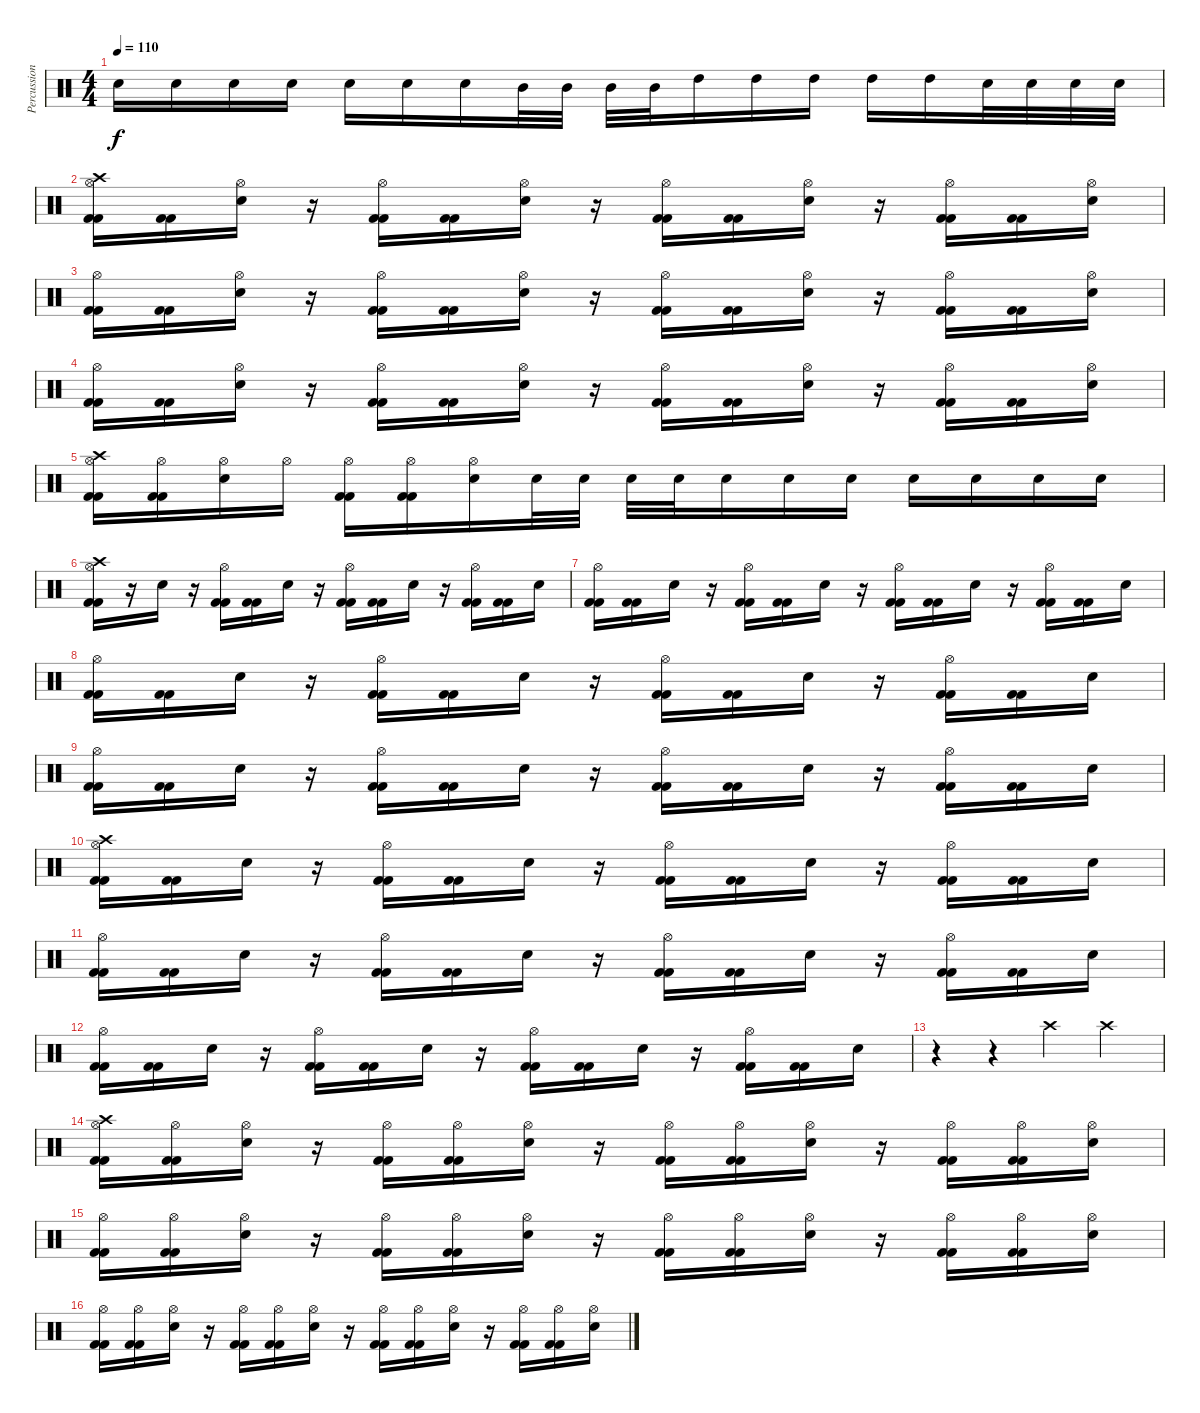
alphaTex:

\track ("Percussions" "Percussion") {instrument percussion}
\staff {score}
\articulation defaults
\ts (4 4)
\tempo 110
\clef neutral
\ks c "Snare (hit) 2".16{dy f volume 16} "Snare (hit) 2".16 "Snare (hit) 2".16 "Snare (hit) 2".16 "Snare (hit) 2".16 "Snare (hit) 2".16 "Snare (hit) 2".16 "Mid Tom (hit)".32 "Mid Tom (hit)".32 "Mid Tom (hit)".32 "Mid Tom (hit)".32 "High Tom (hit)".16 "High Tom (hit)".16 "High Tom (hit)".16 "High Tom (hit)".16 "High Tom (hit)".16 "Snare (hit) 2".32 "Snare (hit) 2".32 "Snare (hit) 2".32 "Snare (hit) 2".32
|
("Crash high (hit)" "Hi-Hat (open)" "Kick (hit) 2" "Kick (hit) 2").16 ("Kick (hit) 2" "Kick (hit) 2").16 ("Hi-Hat (open)" "Snare (hit) 2").16 r.16 ("Hi-Hat (open)" "Kick (hit) 2" "Kick (hit) 2").16 ("Kick (hit) 2" "Kick (hit) 2").16 ("Hi-Hat (open)" "Snare (hit) 2").16 r.16 ("Hi-Hat (open)" "Kick (hit) 2" "Kick (hit) 2").16 ("Kick (hit) 2" "Kick (hit) 2").16 ("Hi-Hat (open)" "Snare (hit) 2").16 r.16 ("Hi-Hat (open)" "Kick (hit) 2" "Kick (hit) 2").16 ("Kick (hit) 2" "Kick (hit) 2").16 ("Hi-Hat (open)" "Snare (hit) 2").16 |
("Hi-Hat (open)" "Kick (hit) 2" "Kick (hit) 2").16 ("Kick (hit) 2" "Kick (hit) 2").16 ("Hi-Hat (open)" "Snare (hit) 2").16 r.16 ("Hi-Hat (open)" "Kick (hit) 2" "Kick (hit) 2").16 ("Kick (hit) 2" "Kick (hit) 2").16 ("Hi-Hat (open)" "Snare (hit) 2").16 r.16 ("Hi-Hat (open)" "Kick (hit) 2" "Kick (hit) 2").16 ("Kick (hit) 2" "Kick (hit) 2").16 ("Hi-Hat (open)" "Snare (hit) 2").16 r.16 ("Hi-Hat (open)" "Kick (hit) 2" "Kick (hit) 2").16 ("Kick (hit) 2" "Kick (hit) 2").16 ("Hi-Hat (open)" "Snare (hit) 2").16 |
("Hi-Hat (open)" "Kick (hit) 2" "Kick (hit) 2").16 ("Kick (hit) 2" "Kick (hit) 2").16 ("Hi-Hat (open)" "Snare (hit) 2").16 r.16 ("Hi-Hat (open)" "Kick (hit) 2" "Kick (hit) 2").16 ("Kick (hit) 2" "Kick (hit) 2").16 ("Hi-Hat (open)" "Snare (hit) 2").16 r.16 ("Hi-Hat (open)" "Kick (hit) 2" "Kick (hit) 2").16 ("Kick (hit) 2" "Kick (hit) 2").16 ("Hi-Hat (open)" "Snare (hit) 2").16 r.16 ("Hi-Hat (open)" "Kick (hit) 2" "Kick (hit) 2").16 ("Kick (hit) 2" "Kick (hit) 2").16 ("Hi-Hat (open)" "Snare (hit) 2").16 |
("Crash high (hit)" "Hi-Hat (open)" "Kick (hit) 2" "Kick (hit) 2").16 ("Hi-Hat (open)" "Kick (hit) 2" "Kick (hit) 2").16 ("Hi-Hat (open)" "Snare (hit) 2").16 "Hi-Hat (open)".16 ("Hi-Hat (open)" "Kick (hit) 2" "Kick (hit) 2").16 ("Hi-Hat (open)" "Kick (hit) 2" "Kick (hit) 2").16 ("Hi-Hat (open)" "Snare (hit) 2").16 "Snare (hit) 2".32 "Snare (hit) 2".32 "Snare (hit) 2".32 "Snare (hit) 2".32 "Snare (hit) 2".16 "Snare (hit) 2".16 "Snare (hit) 2".16 "Snare (hit) 2".16 "Snare (hit) 2".16 "Snare (hit) 2".16 "Snare (hit) 2".16 |
("Crash high (hit)" "Hi-Hat (open)" "Kick (hit) 2" "Kick (hit) 2").16 r.16 "Snare (hit) 2".16 r.16 ("Hi-Hat (open)" "Kick (hit) 2" "Kick (hit) 2").16 ("Kick (hit) 2" "Kick (hit) 2").16 "Snare (hit) 2".16 r.16 ("Hi-Hat (open)" "Kick (hit) 2" "Kick (hit) 2").16 ("Kick (hit) 2" "Kick (hit) 2").16 "Snare (hit) 2".16 r.16 ("Hi-Hat (open)" "Kick (hit) 2" "Kick (hit) 2").16 ("Kick (hit) 2" "Kick (hit) 2").16 "Snare (hit) 2".16 |
("Hi-Hat (open)" "Kick (hit) 2" "Kick (hit) 2").16 ("Kick (hit) 2" "Kick (hit) 2").16 "Snare (hit) 2".16 r.16 ("Hi-Hat (open)" "Kick (hit) 2" "Kick (hit) 2").16 ("Kick (hit) 2" "Kick (hit) 2").16 "Snare (hit) 2".16 r.16 ("Hi-Hat (open)" "Kick (hit) 2" "Kick (hit) 2").16 ("Kick (hit) 2" "Kick (hit) 2").16 "Snare (hit) 2".16 r.16 ("Hi-Hat (open)" "Kick (hit) 2" "Kick (hit) 2").16 ("Kick (hit) 2" "Kick (hit) 2").16 "Snare (hit) 2".16 |
("Hi-Hat (open)" "Kick (hit) 2" "Kick (hit) 2").16 ("Kick (hit) 2" "Kick (hit) 2").16 "Snare (hit) 2".16 r.16 ("Hi-Hat (open)" "Kick (hit) 2" "Kick (hit) 2").16 ("Kick (hit) 2" "Kick (hit) 2").16 "Snare (hit) 2".16 r.16 ("Hi-Hat (open)" "Kick (hit) 2" "Kick (hit) 2").16 ("Kick (hit) 2" "Kick (hit) 2").16 "Snare (hit) 2".16 r.16 ("Hi-Hat (open)" "Kick (hit) 2" "Kick (hit) 2").16 ("Kick (hit) 2" "Kick (hit) 2").16 "Snare (hit) 2".16 |
("Hi-Hat (open)" "Kick (hit) 2" "Kick (hit) 2").16 ("Kick (hit) 2" "Kick (hit) 2").16 "Snare (hit) 2".16 r.16 ("Hi-Hat (open)" "Kick (hit) 2" "Kick (hit) 2").16 ("Kick (hit) 2" "Kick (hit) 2").16 "Snare (hit) 2".16 r.16 ("Hi-Hat (open)" "Kick (hit) 2" "Kick (hit) 2").16 ("Kick (hit) 2" "Kick (hit) 2").16 "Snare (hit) 2".16 r.16 ("Hi-Hat (open)" "Kick (hit) 2" "Kick (hit) 2").16 ("Kick (hit) 2" "Kick (hit) 2").16 "Snare (hit) 2".16 |
("Crash high (hit)" "Hi-Hat (open)" "Kick (hit) 2" "Kick (hit) 2").16 ("Kick (hit) 2" "Kick (hit) 2").16 "Snare (hit) 2".16 r.16 ("Hi-Hat (open)" "Kick (hit) 2" "Kick (hit) 2").16 ("Kick (hit) 2" "Kick (hit) 2").16 "Snare (hit) 2".16 r.16 ("Hi-Hat (open)" "Kick (hit) 2" "Kick (hit) 2").16 ("Kick (hit) 2" "Kick (hit) 2").16 "Snare (hit) 2".16 r.16 ("Hi-Hat (open)" "Kick (hit) 2" "Kick (hit) 2").16 ("Kick (hit) 2" "Kick (hit) 2").16 "Snare (hit) 2".16 |
("Hi-Hat (open)" "Kick (hit) 2" "Kick (hit) 2").16 ("Kick (hit) 2" "Kick (hit) 2").16 "Snare (hit) 2".16 r.16 ("Hi-Hat (open)" "Kick (hit) 2" "Kick (hit) 2").16 ("Kick (hit) 2" "Kick (hit) 2").16 "Snare (hit) 2".16 r.16 ("Hi-Hat (open)" "Kick (hit) 2" "Kick (hit) 2").16 ("Kick (hit) 2" "Kick (hit) 2").16 "Snare (hit) 2".16 r.16 ("Hi-Hat (open)" "Kick (hit) 2" "Kick (hit) 2").16 ("Kick (hit) 2" "Kick (hit) 2").16 "Snare (hit) 2".16 |
("Hi-Hat (open)" "Kick (hit) 2" "Kick (hit) 2").16 ("Kick (hit) 2" "Kick (hit) 2").16 "Snare (hit) 2".16 r.16 ("Hi-Hat (open)" "Kick (hit) 2" "Kick (hit) 2").16 ("Kick (hit) 2" "Kick (hit) 2").16 "Snare (hit) 2".16 r.16 ("Hi-Hat (open)" "Kick (hit) 2" "Kick (hit) 2").16 ("Kick (hit) 2" "Kick (hit) 2").16 "Snare (hit) 2".16 r.16 ("Hi-Hat (open)" "Kick (hit) 2" "Kick (hit) 2").16 ("Kick (hit) 2" "Kick (hit) 2").16 "Snare (hit) 2".16 |
r.4 r.4 "Crash high (hit)".4 "Crash high (hit)".4 |
("Crash high (hit)" "Hi-Hat (open)" "Kick (hit) 2" "Kick (hit) 2").16 ("Hi-Hat (open)" "Kick (hit) 2" "Kick (hit) 2").16 ("Hi-Hat (open)" "Snare (hit) 2").16 r.16 ("Hi-Hat (open)" "Kick (hit) 2" "Kick (hit) 2").16 ("Hi-Hat (open)" "Kick (hit) 2" "Kick (hit) 2").16 ("Hi-Hat (open)" "Snare (hit) 2").16 r.16 ("Hi-Hat (open)" "Kick (hit) 2" "Kick (hit) 2").16 ("Hi-Hat (open)" "Kick (hit) 2" "Kick (hit) 2").16 ("Hi-Hat (open)" "Snare (hit) 2").16 r.16 ("Hi-Hat (open)" "Kick (hit) 2" "Kick (hit) 2").16 ("Hi-Hat (open)" "Kick (hit) 2" "Kick (hit) 2").16 ("Hi-Hat (open)" "Snare (hit) 2").16 |
("Hi-Hat (open)" "Kick (hit) 2" "Kick (hit) 2").16 ("Hi-Hat (open)" "Kick (hit) 2" "Kick (hit) 2").16 ("Hi-Hat (open)" "Snare (hit) 2").16 r.16 ("Hi-Hat (open)" "Kick (hit) 2" "Kick (hit) 2").16 ("Hi-Hat (open)" "Kick (hit) 2" "Kick (hit) 2").16 ("Hi-Hat (open)" "Snare (hit) 2").16 r.16 ("Hi-Hat (open)" "Kick (hit) 2" "Kick (hit) 2").16 ("Hi-Hat (open)" "Kick (hit) 2" "Kick (hit) 2").16 ("Hi-Hat (open)" "Snare (hit) 2").16 r.16 ("Hi-Hat (open)" "Kick (hit) 2" "Kick (hit) 2").16 ("Hi-Hat (open)" "Kick (hit) 2" "Kick (hit) 2").16 ("Hi-Hat (open)" "Snare (hit) 2").16 |
("Hi-Hat (open)" "Kick (hit) 2" "Kick (hit) 2").16 ("Hi-Hat (open)" "Kick (hit) 2" "Kick (hit) 2").16 ("Hi-Hat (open)" "Snare (hit) 2").16 r.16 ("Hi-Hat (open)" "Kick (hit) 2" "Kick (hit) 2").16 ("Hi-Hat (open)" "Kick (hit) 2" "Kick (hit) 2").16 ("Hi-Hat (open)" "Snare (hit) 2").16 r.16 ("Hi-Hat (open)" "Kick (hit) 2" "Kick (hit) 2").16 ("Hi-Hat (open)" "Kick (hit) 2" "Kick (hit) 2").16 ("Hi-Hat (open)" "Snare (hit) 2").16 r.16 ("Hi-Hat (open)" "Kick (hit) 2" "Kick (hit) 2").16 ("Hi-Hat (open)" "Kick (hit) 2" "Kick (hit) 2").16 ("Hi-Hat (open)" "Snare (hit) 2").16
